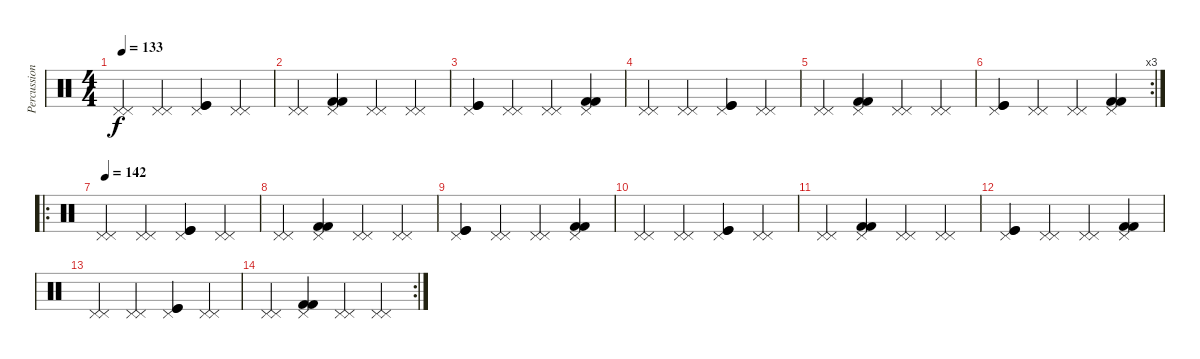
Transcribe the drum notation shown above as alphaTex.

\track ("Percussions" "Percussion") {instrument percussion}
\staff {score}
\articulation defaults
\ts (4 4)
\tempo 133
\clef neutral
\ks c
("Pedal Hi-Hat (hit)" "Pedal Hi-Hat (hit)").4{dy f} ("Pedal Hi-Hat (hit)" "Pedal Hi-Hat (hit)").4 ("Pedal Hi-Hat (hit)" "Kick (hit)" "Kick (hit)").4 ("Pedal Hi-Hat (hit)" "Pedal Hi-Hat (hit)").4 |
("Pedal Hi-Hat (hit)" "Pedal Hi-Hat (hit)").4 ("Pedal Hi-Hat (hit)" "Kick (hit) 2" "Kick (hit) 2").4 ("Pedal Hi-Hat (hit)" "Pedal Hi-Hat (hit)").4 ("Pedal Hi-Hat (hit)" "Pedal Hi-Hat (hit)").4 |
("Pedal Hi-Hat (hit)" "Kick (hit)" "Kick (hit)").4 ("Pedal Hi-Hat (hit)" "Pedal Hi-Hat (hit)").4 ("Pedal Hi-Hat (hit)" "Pedal Hi-Hat (hit)").4 ("Pedal Hi-Hat (hit)" "Kick (hit) 2" "Kick (hit) 2").4 |
("Pedal Hi-Hat (hit)" "Pedal Hi-Hat (hit)").4 ("Pedal Hi-Hat (hit)" "Pedal Hi-Hat (hit)").4 ("Pedal Hi-Hat (hit)" "Kick (hit)" "Kick (hit)").4 ("Pedal Hi-Hat (hit)" "Pedal Hi-Hat (hit)").4 |
("Pedal Hi-Hat (hit)" "Pedal Hi-Hat (hit)").4 ("Pedal Hi-Hat (hit)" "Kick (hit) 2" "Kick (hit) 2").4 ("Pedal Hi-Hat (hit)" "Pedal Hi-Hat (hit)").4 ("Pedal Hi-Hat (hit)" "Pedal Hi-Hat (hit)").4 |
\rc 3
("Pedal Hi-Hat (hit)" "Kick (hit)" "Kick (hit)").4 ("Pedal Hi-Hat (hit)" "Pedal Hi-Hat (hit)").4 ("Pedal Hi-Hat (hit)" "Pedal Hi-Hat (hit)").4 ("Pedal Hi-Hat (hit)" "Kick (hit) 2" "Kick (hit) 2").4 |
\ro
\tempo 142
("Pedal Hi-Hat (hit)" "Pedal Hi-Hat (hit)").4 ("Pedal Hi-Hat (hit)" "Pedal Hi-Hat (hit)").4 ("Pedal Hi-Hat (hit)" "Kick (hit)" "Kick (hit)").4 ("Pedal Hi-Hat (hit)" "Pedal Hi-Hat (hit)").4 |
("Pedal Hi-Hat (hit)" "Pedal Hi-Hat (hit)").4 ("Pedal Hi-Hat (hit)" "Kick (hit) 2" "Kick (hit) 2").4 ("Pedal Hi-Hat (hit)" "Pedal Hi-Hat (hit)").4 ("Pedal Hi-Hat (hit)" "Pedal Hi-Hat (hit)").4 |
("Pedal Hi-Hat (hit)" "Kick (hit)" "Kick (hit)").4 ("Pedal Hi-Hat (hit)" "Pedal Hi-Hat (hit)").4 ("Pedal Hi-Hat (hit)" "Pedal Hi-Hat (hit)").4 ("Pedal Hi-Hat (hit)" "Kick (hit) 2" "Kick (hit) 2").4 |
("Pedal Hi-Hat (hit)" "Pedal Hi-Hat (hit)").4 ("Pedal Hi-Hat (hit)" "Pedal Hi-Hat (hit)").4 ("Pedal Hi-Hat (hit)" "Kick (hit)" "Kick (hit)").4 ("Pedal Hi-Hat (hit)" "Pedal Hi-Hat (hit)").4 |
("Pedal Hi-Hat (hit)" "Pedal Hi-Hat (hit)").4 ("Pedal Hi-Hat (hit)" "Kick (hit) 2" "Kick (hit) 2").4 ("Pedal Hi-Hat (hit)" "Pedal Hi-Hat (hit)").4 ("Pedal Hi-Hat (hit)" "Pedal Hi-Hat (hit)").4 |
("Pedal Hi-Hat (hit)" "Kick (hit)" "Kick (hit)").4 ("Pedal Hi-Hat (hit)" "Pedal Hi-Hat (hit)").4 ("Pedal Hi-Hat (hit)" "Pedal Hi-Hat (hit)").4 ("Pedal Hi-Hat (hit)" "Kick (hit) 2" "Kick (hit) 2").4 |
("Pedal Hi-Hat (hit)" "Pedal Hi-Hat (hit)").4 ("Pedal Hi-Hat (hit)" "Pedal Hi-Hat (hit)").4 ("Pedal Hi-Hat (hit)" "Kick (hit)" "Kick (hit)").4 ("Pedal Hi-Hat (hit)" "Pedal Hi-Hat (hit)").4 |
\rc 2
("Pedal Hi-Hat (hit)" "Pedal Hi-Hat (hit)").4 ("Pedal Hi-Hat (hit)" "Kick (hit) 2" "Kick (hit) 2").4 ("Pedal Hi-Hat (hit)" "Pedal Hi-Hat (hit)").4 ("Pedal Hi-Hat (hit)" "Pedal Hi-Hat (hit)").4
